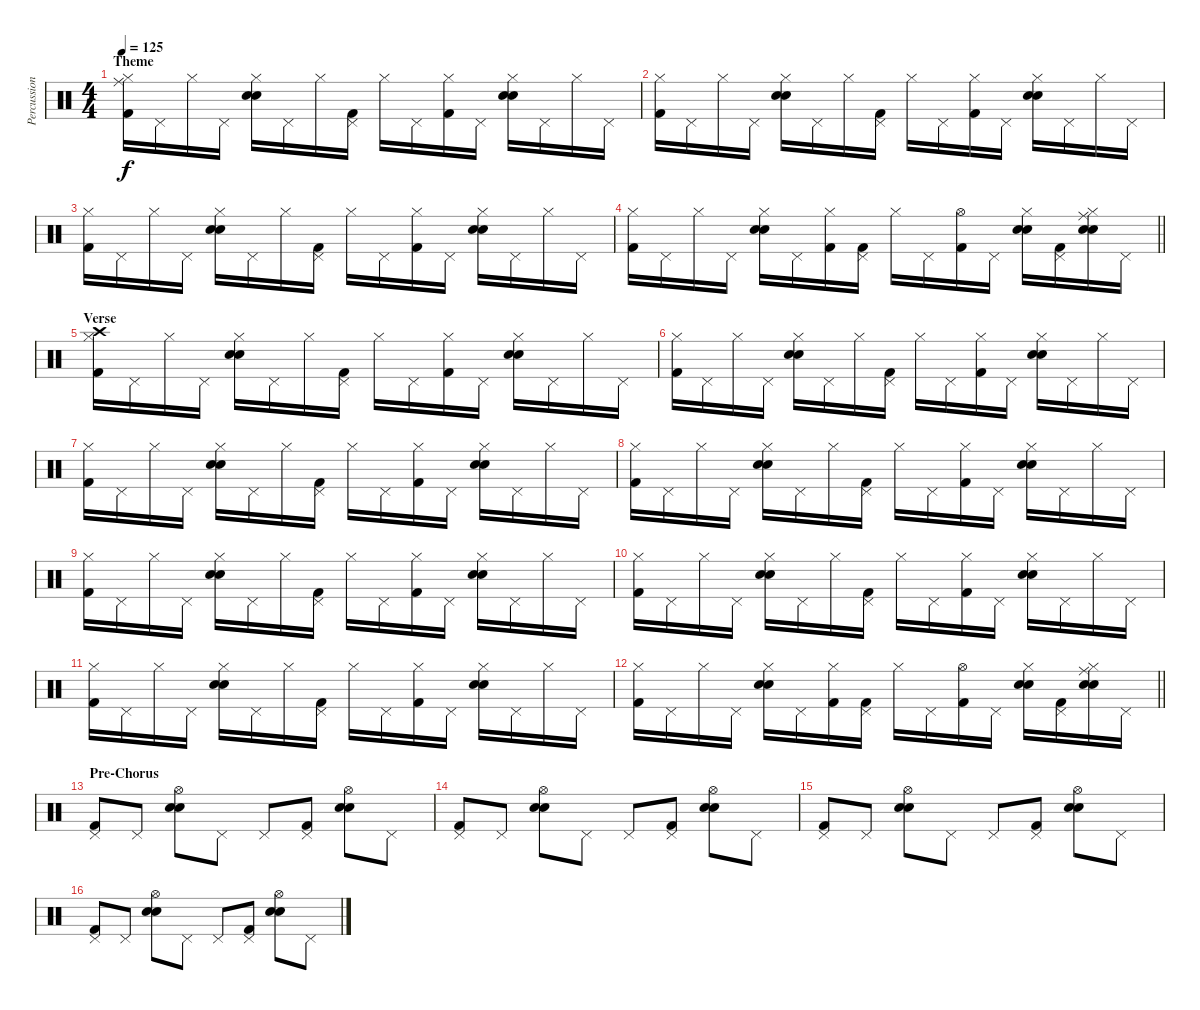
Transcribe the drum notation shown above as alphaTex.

\track ("Percussion" "Percussion") {instrument percussion}
\staff {score}
\articulation defaults
\ts (4 4)
\section ("" "Theme")
\tempo 125
\clef neutral
\ks c
("Ride (middle)" "Hi-Hat (closed)" "Kick (hit) 2").16{dy f} "Pedal Hi-Hat (hit)".16 "Hi-Hat (closed)".16 "Pedal Hi-Hat (hit)".16 ("Electric Snare (hit)" "Electric Snare (hit)" "Hi-Hat (closed)").16 "Pedal Hi-Hat (hit)".16 "Hi-Hat (closed)".16 ("Pedal Hi-Hat (hit)" "Kick (hit) 2").16 "Hi-Hat (closed)".16 "Pedal Hi-Hat (hit)".16 ("Hi-Hat (closed)" "Kick (hit) 2").16 "Pedal Hi-Hat (hit)".16 ("Electric Snare (hit)" "Electric Snare (hit)" "Hi-Hat (closed)").16 "Pedal Hi-Hat (hit)".16 "Hi-Hat (closed)".16 "Pedal Hi-Hat (hit)".16 |
("Hi-Hat (closed)" "Kick (hit) 2").16 "Pedal Hi-Hat (hit)".16 "Hi-Hat (closed)".16 "Pedal Hi-Hat (hit)".16 ("Electric Snare (hit)" "Electric Snare (hit)" "Hi-Hat (closed)").16 "Pedal Hi-Hat (hit)".16 "Hi-Hat (closed)".16 ("Pedal Hi-Hat (hit)" "Kick (hit) 2").16 "Hi-Hat (closed)".16 "Pedal Hi-Hat (hit)".16 ("Hi-Hat (closed)" "Kick (hit) 2").16 "Pedal Hi-Hat (hit)".16 ("Electric Snare (hit)" "Electric Snare (hit)" "Hi-Hat (closed)").16 "Pedal Hi-Hat (hit)".16 "Hi-Hat (closed)".16 "Pedal Hi-Hat (hit)".16 |
("Hi-Hat (closed)" "Kick (hit) 2").16 "Pedal Hi-Hat (hit)".16 "Hi-Hat (closed)".16 "Pedal Hi-Hat (hit)".16 ("Electric Snare (hit)" "Electric Snare (hit)" "Hi-Hat (closed)").16 "Pedal Hi-Hat (hit)".16 "Hi-Hat (closed)".16 ("Pedal Hi-Hat (hit)" "Kick (hit) 2").16 "Hi-Hat (closed)".16 "Pedal Hi-Hat (hit)".16 ("Hi-Hat (closed)" "Kick (hit) 2").16 "Pedal Hi-Hat (hit)".16 ("Electric Snare (hit)" "Electric Snare (hit)" "Hi-Hat (closed)").16 "Pedal Hi-Hat (hit)".16 "Hi-Hat (closed)".16 "Pedal Hi-Hat (hit)".16 |
\barLineRight lightlight
("Hi-Hat (closed)" "Kick (hit) 2").16 "Pedal Hi-Hat (hit)".16 "Hi-Hat (closed)".16 "Pedal Hi-Hat (hit)".16 ("Electric Snare (hit)" "Electric Snare (hit)" "Hi-Hat (closed)").16 "Pedal Hi-Hat (hit)".16 ("Hi-Hat (closed)" "Kick (hit) 2").16 ("Pedal Hi-Hat (hit)" "Kick (hit) 2").16 "Hi-Hat (closed)".16 "Pedal Hi-Hat (hit)".16 ("Hi-Hat (open)" "Kick (hit) 2").16 "Pedal Hi-Hat (hit)".16 ("Electric Snare (hit)" "Electric Snare (hit)" "Hi-Hat (closed)").16 ("Pedal Hi-Hat (hit)" "Kick (hit) 2").16 ("Ride (middle)" "Electric Snare (hit)" "Electric Snare (hit)" "Hi-Hat (closed)").16 "Pedal Hi-Hat (hit)".16 |
\section ("" "Verse")
("Crash high (hit)" "Hi-Hat (closed)" "Kick (hit) 2").16 "Pedal Hi-Hat (hit)".16 "Hi-Hat (closed)".16 "Pedal Hi-Hat (hit)".16 ("Electric Snare (hit)" "Electric Snare (hit)" "Hi-Hat (closed)").16 "Pedal Hi-Hat (hit)".16 "Hi-Hat (closed)".16 ("Pedal Hi-Hat (hit)" "Kick (hit) 2").16 "Hi-Hat (closed)".16 "Pedal Hi-Hat (hit)".16 ("Hi-Hat (closed)" "Kick (hit) 2").16 "Pedal Hi-Hat (hit)".16 ("Electric Snare (hit)" "Electric Snare (hit)" "Hi-Hat (closed)").16 "Pedal Hi-Hat (hit)".16 "Hi-Hat (closed)".16 "Pedal Hi-Hat (hit)".16 |
("Hi-Hat (closed)" "Kick (hit) 2").16 "Pedal Hi-Hat (hit)".16 "Hi-Hat (closed)".16 "Pedal Hi-Hat (hit)".16 ("Electric Snare (hit)" "Electric Snare (hit)" "Hi-Hat (closed)").16 "Pedal Hi-Hat (hit)".16 "Hi-Hat (closed)".16 ("Pedal Hi-Hat (hit)" "Kick (hit) 2").16 "Hi-Hat (closed)".16 "Pedal Hi-Hat (hit)".16 ("Hi-Hat (closed)" "Kick (hit) 2").16 "Pedal Hi-Hat (hit)".16 ("Electric Snare (hit)" "Electric Snare (hit)" "Hi-Hat (closed)").16 "Pedal Hi-Hat (hit)".16 "Hi-Hat (closed)".16 "Pedal Hi-Hat (hit)".16 |
("Hi-Hat (closed)" "Kick (hit) 2").16 "Pedal Hi-Hat (hit)".16 "Hi-Hat (closed)".16 "Pedal Hi-Hat (hit)".16 ("Electric Snare (hit)" "Electric Snare (hit)" "Hi-Hat (closed)").16 "Pedal Hi-Hat (hit)".16 "Hi-Hat (closed)".16 ("Pedal Hi-Hat (hit)" "Kick (hit) 2").16 "Hi-Hat (closed)".16 "Pedal Hi-Hat (hit)".16 ("Hi-Hat (closed)" "Kick (hit) 2").16 "Pedal Hi-Hat (hit)".16 ("Electric Snare (hit)" "Electric Snare (hit)" "Hi-Hat (closed)").16 "Pedal Hi-Hat (hit)".16 "Hi-Hat (closed)".16 "Pedal Hi-Hat (hit)".16 |
("Hi-Hat (closed)" "Kick (hit) 2").16 "Pedal Hi-Hat (hit)".16 "Hi-Hat (closed)".16 "Pedal Hi-Hat (hit)".16 ("Electric Snare (hit)" "Electric Snare (hit)" "Hi-Hat (closed)").16 "Pedal Hi-Hat (hit)".16 "Hi-Hat (closed)".16 ("Pedal Hi-Hat (hit)" "Kick (hit) 2").16 "Hi-Hat (closed)".16 "Pedal Hi-Hat (hit)".16 ("Hi-Hat (closed)" "Kick (hit) 2").16 "Pedal Hi-Hat (hit)".16 ("Electric Snare (hit)" "Electric Snare (hit)" "Hi-Hat (closed)").16 "Pedal Hi-Hat (hit)".16 "Hi-Hat (closed)".16 "Pedal Hi-Hat (hit)".16 |
("Hi-Hat (closed)" "Kick (hit) 2").16 "Pedal Hi-Hat (hit)".16 "Hi-Hat (closed)".16 "Pedal Hi-Hat (hit)".16 ("Electric Snare (hit)" "Electric Snare (hit)" "Hi-Hat (closed)").16 "Pedal Hi-Hat (hit)".16 "Hi-Hat (closed)".16 ("Pedal Hi-Hat (hit)" "Kick (hit) 2").16 "Hi-Hat (closed)".16 "Pedal Hi-Hat (hit)".16 ("Hi-Hat (closed)" "Kick (hit) 2").16 "Pedal Hi-Hat (hit)".16 ("Electric Snare (hit)" "Electric Snare (hit)" "Hi-Hat (closed)").16 "Pedal Hi-Hat (hit)".16 "Hi-Hat (closed)".16 "Pedal Hi-Hat (hit)".16 |
("Hi-Hat (closed)" "Kick (hit) 2").16 "Pedal Hi-Hat (hit)".16 "Hi-Hat (closed)".16 "Pedal Hi-Hat (hit)".16 ("Electric Snare (hit)" "Electric Snare (hit)" "Hi-Hat (closed)").16 "Pedal Hi-Hat (hit)".16 "Hi-Hat (closed)".16 ("Pedal Hi-Hat (hit)" "Kick (hit) 2").16 "Hi-Hat (closed)".16 "Pedal Hi-Hat (hit)".16 ("Hi-Hat (closed)" "Kick (hit) 2").16 "Pedal Hi-Hat (hit)".16 ("Electric Snare (hit)" "Electric Snare (hit)" "Hi-Hat (closed)").16 "Pedal Hi-Hat (hit)".16 "Hi-Hat (closed)".16 "Pedal Hi-Hat (hit)".16 |
("Hi-Hat (closed)" "Kick (hit) 2").16 "Pedal Hi-Hat (hit)".16 "Hi-Hat (closed)".16 "Pedal Hi-Hat (hit)".16 ("Electric Snare (hit)" "Electric Snare (hit)" "Hi-Hat (closed)").16 "Pedal Hi-Hat (hit)".16 "Hi-Hat (closed)".16 ("Pedal Hi-Hat (hit)" "Kick (hit) 2").16 "Hi-Hat (closed)".16 "Pedal Hi-Hat (hit)".16 ("Hi-Hat (closed)" "Kick (hit) 2").16 "Pedal Hi-Hat (hit)".16 ("Electric Snare (hit)" "Electric Snare (hit)" "Hi-Hat (closed)").16 "Pedal Hi-Hat (hit)".16 "Hi-Hat (closed)".16 "Pedal Hi-Hat (hit)".16 |
\barLineRight lightlight
("Hi-Hat (closed)" "Kick (hit) 2").16 "Pedal Hi-Hat (hit)".16 "Hi-Hat (closed)".16 "Pedal Hi-Hat (hit)".16 ("Electric Snare (hit)" "Electric Snare (hit)" "Hi-Hat (closed)").16 "Pedal Hi-Hat (hit)".16 ("Hi-Hat (closed)" "Kick (hit) 2").16 ("Pedal Hi-Hat (hit)" "Kick (hit) 2").16 "Hi-Hat (closed)".16 "Pedal Hi-Hat (hit)".16 ("Hi-Hat (open)" "Kick (hit) 2").16 "Pedal Hi-Hat (hit)".16 ("Electric Snare (hit)" "Electric Snare (hit)" "Hi-Hat (closed)").16 ("Pedal Hi-Hat (hit)" "Kick (hit) 2").16 ("Ride (middle)" "Electric Snare (hit)" "Electric Snare (hit)" "Hi-Hat (closed)").16 "Pedal Hi-Hat (hit)".16 |
\section ("" "Pre-Chorus")
("Pedal Hi-Hat (hit)" "Kick (hit) 2").8 "Pedal Hi-Hat (hit)".8 ("Electric Snare (hit)" "Electric Snare (hit)" "Hi-Hat (open)").8 "Pedal Hi-Hat (hit)".8 "Pedal Hi-Hat (hit)".8 ("Pedal Hi-Hat (hit)" "Kick (hit) 2").8 ("Electric Snare (hit)" "Electric Snare (hit)" "Hi-Hat (open)").8 "Pedal Hi-Hat (hit)".8 |
("Pedal Hi-Hat (hit)" "Kick (hit) 2").8 "Pedal Hi-Hat (hit)".8 ("Electric Snare (hit)" "Electric Snare (hit)" "Hi-Hat (open)").8 "Pedal Hi-Hat (hit)".8 "Pedal Hi-Hat (hit)".8 ("Pedal Hi-Hat (hit)" "Kick (hit) 2").8 ("Electric Snare (hit)" "Electric Snare (hit)" "Hi-Hat (open)").8 "Pedal Hi-Hat (hit)".8 |
("Pedal Hi-Hat (hit)" "Kick (hit) 2").8 "Pedal Hi-Hat (hit)".8 ("Electric Snare (hit)" "Electric Snare (hit)" "Hi-Hat (open)").8 "Pedal Hi-Hat (hit)".8 "Pedal Hi-Hat (hit)".8 ("Pedal Hi-Hat (hit)" "Kick (hit) 2").8 ("Electric Snare (hit)" "Electric Snare (hit)" "Hi-Hat (open)").8 "Pedal Hi-Hat (hit)".8 |
("Pedal Hi-Hat (hit)" "Kick (hit) 2").8 "Pedal Hi-Hat (hit)".8 ("Electric Snare (hit)" "Electric Snare (hit)" "Hi-Hat (open)").8 "Pedal Hi-Hat (hit)".8 "Pedal Hi-Hat (hit)".8 ("Pedal Hi-Hat (hit)" "Kick (hit) 2").8 ("Electric Snare (hit)" "Electric Snare (hit)" "Hi-Hat (open)").8 "Pedal Hi-Hat (hit)".8
